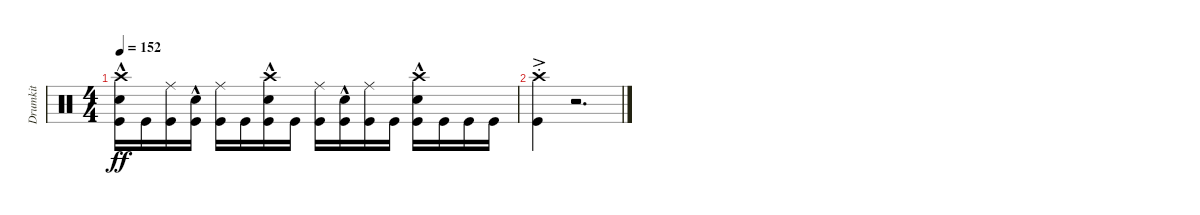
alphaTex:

\track ("Drumkit" "Drumkit") {instrument percussion}
\staff {score}
\articulation defaults
\ts (4 4)
\tempo 152
\clef neutral
\ks c
("Kick (hit)" "Snare (hit) 2"{hac} "Crash high (hit)").16{dy ff} "Kick (hit)".16 ("Kick (hit)" "Ride (middle)").16 ("Kick (hit)" "Snare (hit) 2"{hac}).16 ("Kick (hit)" "Ride (middle)").16 "Kick (hit)".16 ("Kick (hit)" "Crash high (hit)" "Snare (hit) 2"{hac}).16 "Kick (hit)".16 ("Kick (hit)" "Ride (middle)").16 ("Kick (hit)" "Snare (hit) 2"{hac}).16 ("Kick (hit)" "Ride (middle)").16 "Kick (hit)".16 ("Kick (hit)" "Snare (hit) 2"{hac} "Crash high (hit)").16 "Kick (hit)".16 "Kick (hit)".16 "Kick (hit)".16 |
("Kick (hit)" "Crash high (hit)"{ac st}).4 r.2{d}
